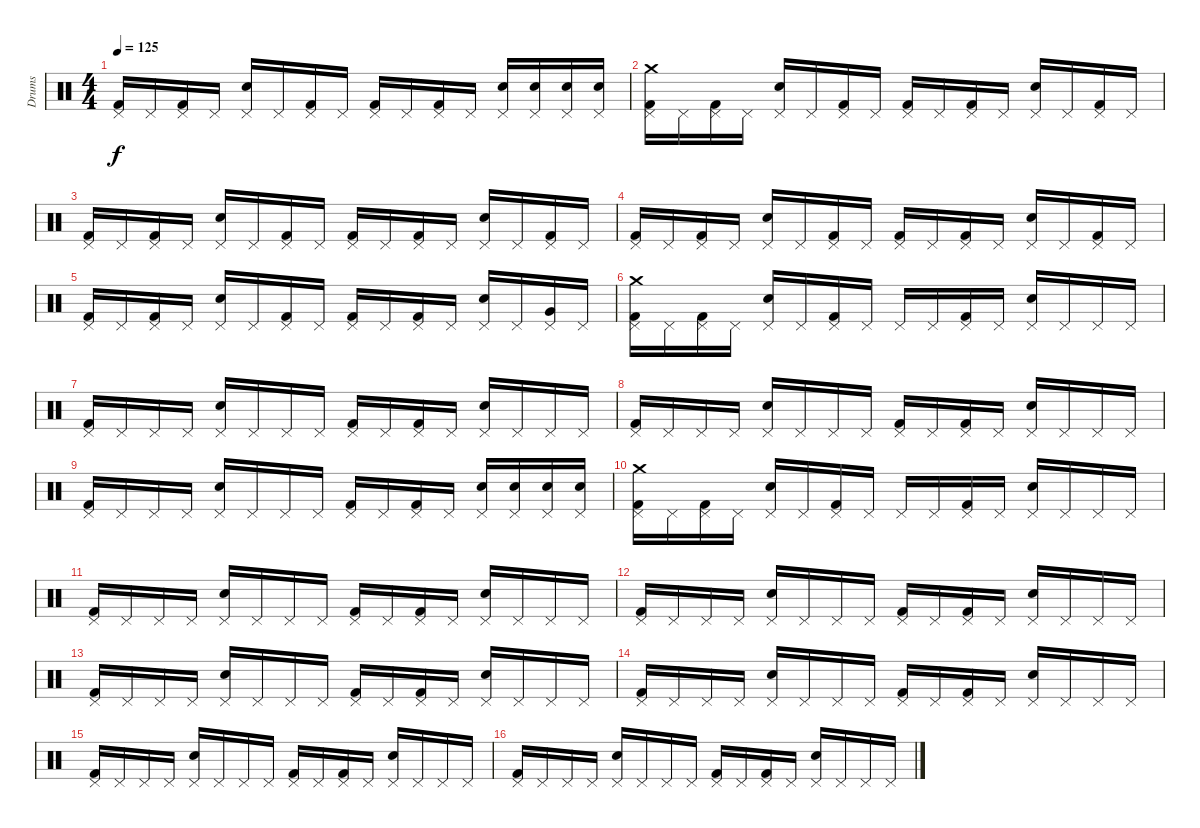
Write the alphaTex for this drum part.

\track ("Drums" "Drums") {instrument percussion}
\staff {score}
\articulation defaults
\ts (4 4)
\tempo 125
\clef neutral
\ks c
("Pedal Hi-Hat (hit)" "Kick (hit) 2").16{dy f} "Pedal Hi-Hat (hit)".16 ("Pedal Hi-Hat (hit)" "Kick (hit) 2").16 "Pedal Hi-Hat (hit)".16 ("Pedal Hi-Hat (hit)" "Snare (hit) 2").16 "Pedal Hi-Hat (hit)".16 ("Pedal Hi-Hat (hit)" "Kick (hit) 2").16 "Pedal Hi-Hat (hit)".16 ("Pedal Hi-Hat (hit)" "Kick (hit) 2").16 "Pedal Hi-Hat (hit)".16 ("Pedal Hi-Hat (hit)" "Kick (hit) 2").16 "Pedal Hi-Hat (hit)".16 ("Pedal Hi-Hat (hit)" "Snare (hit) 2").16 ("Pedal Hi-Hat (hit)" "Snare (hit) 2").16 ("Pedal Hi-Hat (hit)" "Snare (hit) 2").16 ("Pedal Hi-Hat (hit)" "Snare (hit) 2").16 |
("Crash medium (hit)" "Kick (hit) 2" "Pedal Hi-Hat (hit)").16 "Pedal Hi-Hat (hit)".16 ("Kick (hit) 2" "Pedal Hi-Hat (hit)").16 "Pedal Hi-Hat (hit)".16 ("Snare (hit) 2" "Pedal Hi-Hat (hit)").16 "Pedal Hi-Hat (hit)".16 ("Kick (hit) 2" "Pedal Hi-Hat (hit)").16 "Pedal Hi-Hat (hit)".16 ("Kick (hit) 2" "Pedal Hi-Hat (hit)").16 "Pedal Hi-Hat (hit)".16 ("Kick (hit) 2" "Pedal Hi-Hat (hit)").16 "Pedal Hi-Hat (hit)".16 ("Snare (hit) 2" "Pedal Hi-Hat (hit)").16 "Pedal Hi-Hat (hit)".16 ("Kick (hit) 2" "Pedal Hi-Hat (hit)").16 "Pedal Hi-Hat (hit)".16 |
("Pedal Hi-Hat (hit)" "Kick (hit) 2").16 "Pedal Hi-Hat (hit)".16 ("Pedal Hi-Hat (hit)" "Kick (hit) 2").16 "Pedal Hi-Hat (hit)".16 ("Pedal Hi-Hat (hit)" "Snare (hit) 2").16 "Pedal Hi-Hat (hit)".16 ("Pedal Hi-Hat (hit)" "Kick (hit) 2").16 "Pedal Hi-Hat (hit)".16 ("Pedal Hi-Hat (hit)" "Kick (hit) 2").16 "Pedal Hi-Hat (hit)".16 ("Pedal Hi-Hat (hit)" "Kick (hit) 2").16 "Pedal Hi-Hat (hit)".16 ("Pedal Hi-Hat (hit)" "Snare (hit) 2").16 "Pedal Hi-Hat (hit)".16 ("Pedal Hi-Hat (hit)" "Kick (hit) 2").16 "Pedal Hi-Hat (hit)".16 |
("Kick (hit) 2" "Pedal Hi-Hat (hit)").16 "Pedal Hi-Hat (hit)".16 ("Kick (hit) 2" "Pedal Hi-Hat (hit)").16 "Pedal Hi-Hat (hit)".16 ("Snare (hit) 2" "Pedal Hi-Hat (hit)").16 "Pedal Hi-Hat (hit)".16 ("Kick (hit) 2" "Pedal Hi-Hat (hit)").16 "Pedal Hi-Hat (hit)".16 ("Kick (hit) 2" "Pedal Hi-Hat (hit)").16 "Pedal Hi-Hat (hit)".16 ("Kick (hit) 2" "Pedal Hi-Hat (hit)").16 "Pedal Hi-Hat (hit)".16 ("Snare (hit) 2" "Pedal Hi-Hat (hit)").16 "Pedal Hi-Hat (hit)".16 ("Kick (hit) 2" "Pedal Hi-Hat (hit)").16 "Pedal Hi-Hat (hit)".16 |
("Kick (hit) 2" "Pedal Hi-Hat (hit)").16 "Pedal Hi-Hat (hit)".16 ("Kick (hit) 2" "Pedal Hi-Hat (hit)").16 "Pedal Hi-Hat (hit)".16 ("Snare (hit) 2" "Pedal Hi-Hat (hit)").16 "Pedal Hi-Hat (hit)".16 ("Kick (hit) 2" "Pedal Hi-Hat (hit)").16 "Pedal Hi-Hat (hit)".16 ("Kick (hit) 2" "Pedal Hi-Hat (hit)").16 "Pedal Hi-Hat (hit)".16 ("Kick (hit) 2" "Pedal Hi-Hat (hit)").16 "Pedal Hi-Hat (hit)".16 ("Snare (hit) 2" "Pedal Hi-Hat (hit)").16 "Pedal Hi-Hat (hit)".16 ("Very Low Tom (hit)" "Pedal Hi-Hat (hit)").16 "Pedal Hi-Hat (hit)".16 |
("Kick (hit) 2" "Crash medium (hit)" "Pedal Hi-Hat (hit)").16 "Pedal Hi-Hat (hit)".16 ("Kick (hit) 2" "Pedal Hi-Hat (hit)").16 "Pedal Hi-Hat (hit)".16 ("Snare (hit) 2" "Pedal Hi-Hat (hit)").16 "Pedal Hi-Hat (hit)".16 ("Kick (hit) 2" "Pedal Hi-Hat (hit)").16 "Pedal Hi-Hat (hit)".16 "Pedal Hi-Hat (hit)".16 "Pedal Hi-Hat (hit)".16 ("Kick (hit) 2" "Pedal Hi-Hat (hit)").16 "Pedal Hi-Hat (hit)".16 ("Snare (hit) 2" "Pedal Hi-Hat (hit)").16 "Pedal Hi-Hat (hit)".16 "Pedal Hi-Hat (hit)".16 "Pedal Hi-Hat (hit)".16 |
("Kick (hit) 2" "Pedal Hi-Hat (hit)").16 "Pedal Hi-Hat (hit)".16 "Pedal Hi-Hat (hit)".16 "Pedal Hi-Hat (hit)".16 ("Snare (hit) 2" "Pedal Hi-Hat (hit)").16 "Pedal Hi-Hat (hit)".16 "Pedal Hi-Hat (hit)".16 "Pedal Hi-Hat (hit)".16 ("Kick (hit) 2" "Pedal Hi-Hat (hit)").16 "Pedal Hi-Hat (hit)".16 ("Kick (hit) 2" "Pedal Hi-Hat (hit)").16 "Pedal Hi-Hat (hit)".16 ("Snare (hit) 2" "Pedal Hi-Hat (hit)").16 "Pedal Hi-Hat (hit)".16 "Pedal Hi-Hat (hit)".16 "Pedal Hi-Hat (hit)".16 |
("Pedal Hi-Hat (hit)" "Kick (hit) 2").16 "Pedal Hi-Hat (hit)".16 "Pedal Hi-Hat (hit)".16 "Pedal Hi-Hat (hit)".16 ("Pedal Hi-Hat (hit)" "Snare (hit) 2").16 "Pedal Hi-Hat (hit)".16 "Pedal Hi-Hat (hit)".16 "Pedal Hi-Hat (hit)".16 ("Pedal Hi-Hat (hit)" "Kick (hit) 2").16 "Pedal Hi-Hat (hit)".16 ("Pedal Hi-Hat (hit)" "Kick (hit) 2").16 "Pedal Hi-Hat (hit)".16 ("Pedal Hi-Hat (hit)" "Snare (hit) 2").16 "Pedal Hi-Hat (hit)".16 "Pedal Hi-Hat (hit)".16 "Pedal Hi-Hat (hit)".16 |
("Pedal Hi-Hat (hit)" "Kick (hit) 2").16 "Pedal Hi-Hat (hit)".16 "Pedal Hi-Hat (hit)".16 "Pedal Hi-Hat (hit)".16 ("Pedal Hi-Hat (hit)" "Snare (hit) 2").16 "Pedal Hi-Hat (hit)".16 "Pedal Hi-Hat (hit)".16 "Pedal Hi-Hat (hit)".16 ("Pedal Hi-Hat (hit)" "Kick (hit) 2").16 "Pedal Hi-Hat (hit)".16 ("Pedal Hi-Hat (hit)" "Kick (hit) 2").16 "Pedal Hi-Hat (hit)".16 ("Snare (hit) 2" "Pedal Hi-Hat (hit)").16 ("Snare (hit) 2" "Pedal Hi-Hat (hit)").16 ("Snare (hit) 2" "Pedal Hi-Hat (hit)").16 ("Snare (hit) 2" "Pedal Hi-Hat (hit)").16 |
("Kick (hit) 2" "Crash medium (hit)" "Pedal Hi-Hat (hit)").16 "Pedal Hi-Hat (hit)".16 ("Kick (hit) 2" "Pedal Hi-Hat (hit)").16 "Pedal Hi-Hat (hit)".16 ("Snare (hit) 2" "Pedal Hi-Hat (hit)").16 "Pedal Hi-Hat (hit)".16 ("Kick (hit) 2" "Pedal Hi-Hat (hit)").16 "Pedal Hi-Hat (hit)".16 "Pedal Hi-Hat (hit)".16 "Pedal Hi-Hat (hit)".16 ("Kick (hit) 2" "Pedal Hi-Hat (hit)").16 "Pedal Hi-Hat (hit)".16 ("Snare (hit) 2" "Pedal Hi-Hat (hit)").16 "Pedal Hi-Hat (hit)".16 "Pedal Hi-Hat (hit)".16 "Pedal Hi-Hat (hit)".16 |
("Pedal Hi-Hat (hit)" "Kick (hit) 2").16 "Pedal Hi-Hat (hit)".16 "Pedal Hi-Hat (hit)".16 "Pedal Hi-Hat (hit)".16 ("Pedal Hi-Hat (hit)" "Snare (hit) 2").16 "Pedal Hi-Hat (hit)".16 "Pedal Hi-Hat (hit)".16 "Pedal Hi-Hat (hit)".16 ("Pedal Hi-Hat (hit)" "Kick (hit) 2").16 "Pedal Hi-Hat (hit)".16 ("Pedal Hi-Hat (hit)" "Kick (hit) 2").16 "Pedal Hi-Hat (hit)".16 ("Pedal Hi-Hat (hit)" "Snare (hit) 2").16 "Pedal Hi-Hat (hit)".16 "Pedal Hi-Hat (hit)".16 "Pedal Hi-Hat (hit)".16 |
("Pedal Hi-Hat (hit)" "Kick (hit) 2").16 "Pedal Hi-Hat (hit)".16 "Pedal Hi-Hat (hit)".16 "Pedal Hi-Hat (hit)".16 ("Pedal Hi-Hat (hit)" "Snare (hit) 2").16 "Pedal Hi-Hat (hit)".16 "Pedal Hi-Hat (hit)".16 "Pedal Hi-Hat (hit)".16 ("Pedal Hi-Hat (hit)" "Kick (hit) 2").16 "Pedal Hi-Hat (hit)".16 ("Pedal Hi-Hat (hit)" "Kick (hit) 2").16 "Pedal Hi-Hat (hit)".16 ("Pedal Hi-Hat (hit)" "Snare (hit) 2").16 "Pedal Hi-Hat (hit)".16 "Pedal Hi-Hat (hit)".16 "Pedal Hi-Hat (hit)".16 |
("Pedal Hi-Hat (hit)" "Kick (hit) 2").16 "Pedal Hi-Hat (hit)".16 "Pedal Hi-Hat (hit)".16 "Pedal Hi-Hat (hit)".16 ("Pedal Hi-Hat (hit)" "Snare (hit) 2").16 "Pedal Hi-Hat (hit)".16 "Pedal Hi-Hat (hit)".16 "Pedal Hi-Hat (hit)".16 ("Pedal Hi-Hat (hit)" "Kick (hit) 2").16 "Pedal Hi-Hat (hit)".16 ("Pedal Hi-Hat (hit)" "Kick (hit) 2").16 "Pedal Hi-Hat (hit)".16 ("Pedal Hi-Hat (hit)" "Snare (hit) 2").16 "Pedal Hi-Hat (hit)".16 "Pedal Hi-Hat (hit)".16 "Pedal Hi-Hat (hit)".16 |
("Kick (hit) 2" "Pedal Hi-Hat (hit)").16 "Pedal Hi-Hat (hit)".16 "Pedal Hi-Hat (hit)".16 "Pedal Hi-Hat (hit)".16 ("Snare (hit) 2" "Pedal Hi-Hat (hit)").16 "Pedal Hi-Hat (hit)".16 "Pedal Hi-Hat (hit)".16 "Pedal Hi-Hat (hit)".16 ("Kick (hit) 2" "Pedal Hi-Hat (hit)").16 "Pedal Hi-Hat (hit)".16 ("Kick (hit) 2" "Pedal Hi-Hat (hit)").16 "Pedal Hi-Hat (hit)".16 ("Snare (hit) 2" "Pedal Hi-Hat (hit)").16 "Pedal Hi-Hat (hit)".16 "Pedal Hi-Hat (hit)".16 "Pedal Hi-Hat (hit)".16 |
("Pedal Hi-Hat (hit)" "Kick (hit) 2").16 "Pedal Hi-Hat (hit)".16 "Pedal Hi-Hat (hit)".16 "Pedal Hi-Hat (hit)".16 ("Pedal Hi-Hat (hit)" "Snare (hit) 2").16 "Pedal Hi-Hat (hit)".16 "Pedal Hi-Hat (hit)".16 "Pedal Hi-Hat (hit)".16 ("Pedal Hi-Hat (hit)" "Kick (hit) 2").16 "Pedal Hi-Hat (hit)".16 ("Pedal Hi-Hat (hit)" "Kick (hit) 2").16 "Pedal Hi-Hat (hit)".16 ("Pedal Hi-Hat (hit)" "Snare (hit) 2").16 "Pedal Hi-Hat (hit)".16 "Pedal Hi-Hat (hit)".16 "Pedal Hi-Hat (hit)".16 |
("Pedal Hi-Hat (hit)" "Kick (hit) 2").16 "Pedal Hi-Hat (hit)".16 "Pedal Hi-Hat (hit)".16 "Pedal Hi-Hat (hit)".16 ("Pedal Hi-Hat (hit)" "Snare (hit) 2").16 "Pedal Hi-Hat (hit)".16 "Pedal Hi-Hat (hit)".16 "Pedal Hi-Hat (hit)".16 ("Pedal Hi-Hat (hit)" "Kick (hit) 2").16 "Pedal Hi-Hat (hit)".16 ("Pedal Hi-Hat (hit)" "Kick (hit) 2").16 "Pedal Hi-Hat (hit)".16 ("Pedal Hi-Hat (hit)" "Snare (hit) 2").16 "Pedal Hi-Hat (hit)".16 "Pedal Hi-Hat (hit)".16 "Pedal Hi-Hat (hit)".16
